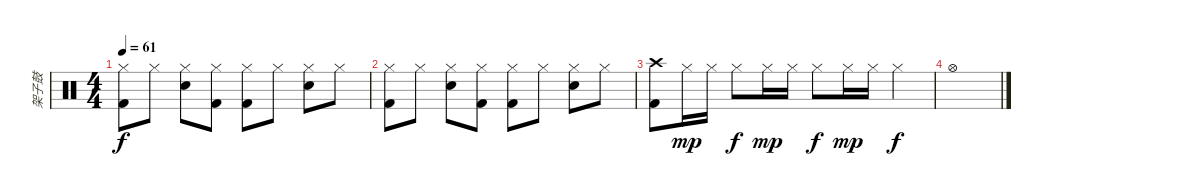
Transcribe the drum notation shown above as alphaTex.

\track ("架子鼓" "架子鼓") {instrument percussion}
\staff {score}
\articulation defaults
\ts (4 4)
\tempo 61
\clef neutral
\ks c
("Hi-Hat (closed)" "Kick (hit) 2").8{dy f} "Hi-Hat (closed)".8 ("Hi-Hat (closed)" "Snare (hit) 2").8 ("Hi-Hat (closed)" "Kick (hit) 2").8 ("Hi-Hat (closed)" "Kick (hit) 2").8 "Hi-Hat (closed)".8 ("Hi-Hat (closed)" "Snare (hit) 2").8 "Hi-Hat (closed)".8 |
("Hi-Hat (closed)" "Kick (hit) 2").8 "Hi-Hat (closed)".8 ("Hi-Hat (closed)" "Snare (hit) 2").8 ("Hi-Hat (closed)" "Kick (hit) 2").8 ("Hi-Hat (closed)" "Kick (hit) 2").8 "Hi-Hat (closed)".8 ("Hi-Hat (closed)" "Snare (hit) 2").8 "Hi-Hat (closed)".8 |
("Crash high (hit)" "Kick (hit) 2").8 "Hi-Hat (closed)".16{dy mp} "Hi-Hat (closed)".16 "Hi-Hat (closed)".8{dy f} "Hi-Hat (closed)".16{dy mp} "Hi-Hat (closed)".16 "Hi-Hat (closed)".8{dy f} "Hi-Hat (closed)".16{dy mp} "Hi-Hat (closed)".16 "Hi-Hat (closed)".4{dy f} |
"Hi-Hat (open)".1
